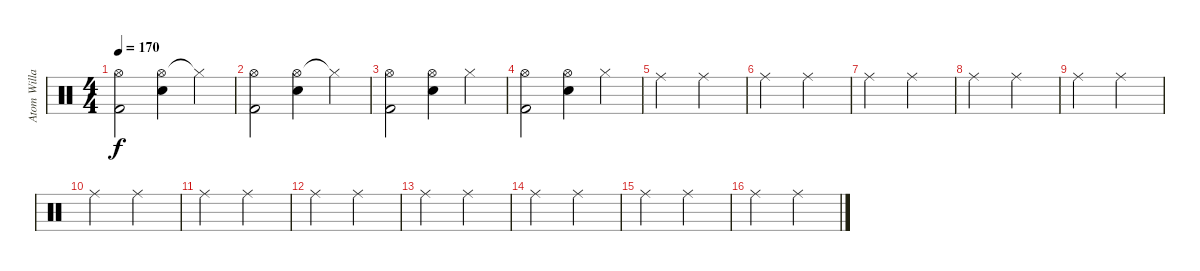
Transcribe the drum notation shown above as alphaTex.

\track ("Atom Willard" "Atom Willa") {instrument percussion}
\staff {score}
\articulation defaults
\ts (4 4)
\tempo 170
\clef neutral
\ks c
("Hi-Hat (open)" "Kick (hit) 2").2{dy f} ("Hi-Hat (open)" "Electric Snare (hit)").4 "Hi-Hat (closed)"{t}.4 |
("Hi-Hat (open)" "Kick (hit) 2").2 ("Hi-Hat (open)" "Electric Snare (hit)").4 "Hi-Hat (closed)"{t}.4 |
("Hi-Hat (open)" "Kick (hit) 2").2 ("Hi-Hat (open)" "Electric Snare (hit)").4 "Hi-Hat (closed)".4 |
("Hi-Hat (open)" "Kick (hit) 2").2 ("Hi-Hat (open)" "Electric Snare (hit)").4 "Hi-Hat (closed)".4 |
"Ride (middle)".2 "Ride (middle)".2 |
"Ride (middle)".2 "Ride (middle)".2 |
"Ride (middle)".2 "Ride (middle)".2 |
"Ride (middle)".2 "Ride (middle)".2 |
"Ride (middle)".2 "Ride (middle)".2 |
"Ride (middle)".2 "Ride (middle)".2 |
"Ride (middle)".2 "Ride (middle)".2 |
"Ride (middle)".2 "Ride (middle)".2 |
"Ride (middle)".2 "Ride (middle)".2 |
"Ride (middle)".2 "Ride (middle)".2 |
"Ride (middle)".2 "Ride (middle)".2 |
"Ride (middle)".2 "Ride (middle)".2
